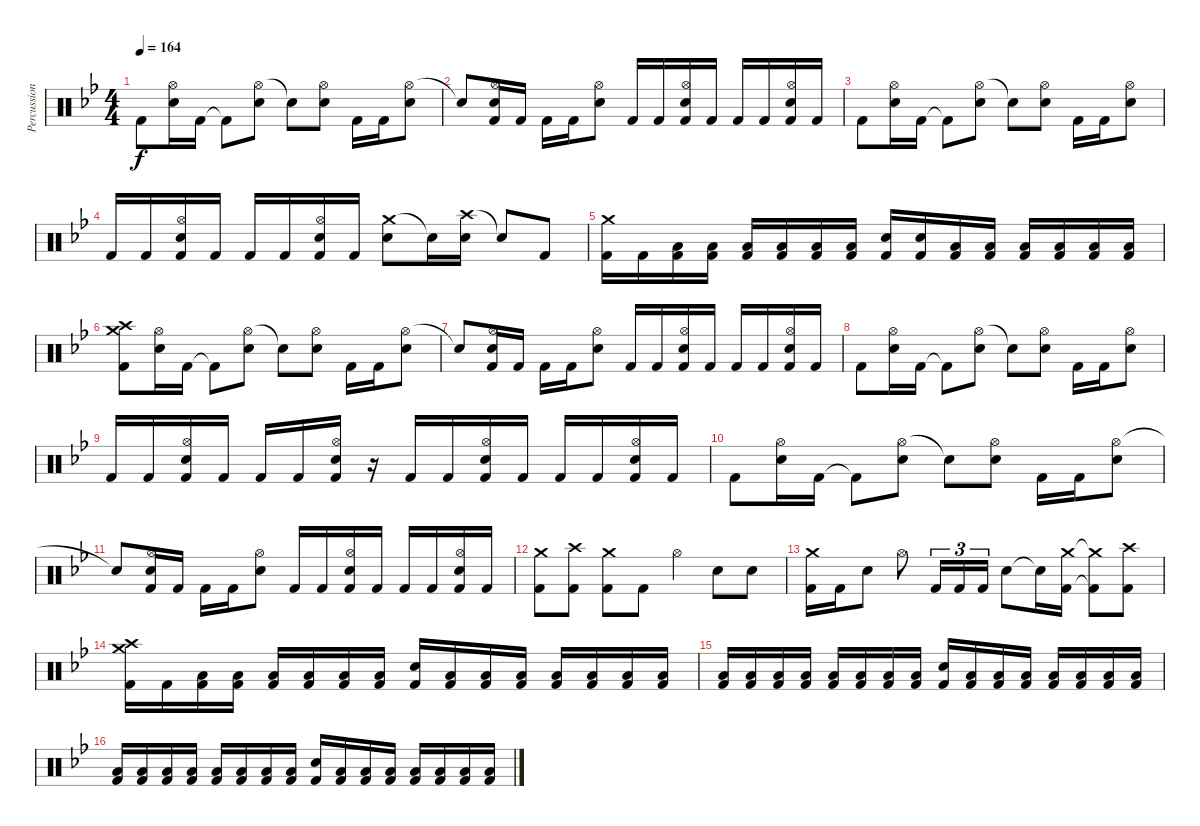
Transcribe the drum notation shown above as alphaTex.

\track ("Percussion" "Percussion") {instrument percussion}
\staff {score}
\articulation defaults
\ts (4 4)
\tempo 164
\clef neutral
\ks bb "Kick (hit) 2".8{dy f}
("Hi-Hat (open)" "Electric Snare (hit)").16 "Kick (hit) 2".16 "Kick (hit) 2"{t}.8 ("Hi-Hat (open)" "Electric Snare (hit)").8 "Electric Snare (hit)"{t}.8 ("Hi-Hat (open)" "Electric Snare (hit)").8 "Kick (hit) 2".16 "Kick (hit) 2".16 ("Hi-Hat (open)" "Electric Snare (hit)").8 |
"Electric Snare (hit)"{t}.8 ("Hi-Hat (open)" "Electric Snare (hit)" "Kick (hit) 2").16 "Kick (hit) 2".16 "Kick (hit) 2".16 "Kick (hit) 2".16 ("Hi-Hat (open)" "Electric Snare (hit)").8 "Kick (hit) 2".16 "Kick (hit) 2".16 ("Hi-Hat (open)" "Electric Snare (hit)" "Kick (hit) 2").16 "Kick (hit) 2".16 "Kick (hit) 2".16 "Kick (hit) 2".16 ("Hi-Hat (open)" "Electric Snare (hit)" "Kick (hit) 2").16 "Kick (hit) 2".16 |
"Kick (hit) 2".8 ("Hi-Hat (open)" "Electric Snare (hit)").16 "Kick (hit) 2".16 "Kick (hit) 2"{t}.8 ("Hi-Hat (open)" "Electric Snare (hit)").8 "Electric Snare (hit)"{t}.8 ("Hi-Hat (open)" "Electric Snare (hit)").8 "Kick (hit) 2".16 "Kick (hit) 2".16 ("Hi-Hat (open)" "Electric Snare (hit)").8 |
"Kick (hit) 2".16 "Kick (hit) 2".16 ("Hi-Hat (open)" "Electric Snare (hit)" "Kick (hit) 2").16 "Kick (hit) 2".16 "Kick (hit) 2".16 "Kick (hit) 2".16 ("Hi-Hat (open)" "Electric Snare (hit)" "Kick (hit) 2").16 "Kick (hit) 2".16 ("Crash medium (hit)" "Electric Snare (hit)").8 "Electric Snare (hit)"{t}.16 ("Crash high (hit)" "Electric Snare (hit)").16 "Electric Snare (hit)"{t}.8 "Kick (hit) 2".8 |
("Crash medium (hit)" "Kick (hit) 2").16 "Kick (hit) 2".16 ("Low Floor Tom (hit)" "Kick (hit) 2").16 ("Low Floor Tom (hit)" "Kick (hit) 2").16 ("Low Floor Tom (hit)" "Kick (hit) 2").16 ("Low Floor Tom (hit)" "Kick (hit) 2").16 ("Low Floor Tom (hit)" "Kick (hit) 2").16 ("Low Floor Tom (hit)" "Kick (hit) 2").16 ("Electric Snare (hit)" "Kick (hit) 2").16 ("Electric Snare (hit)" "Kick (hit) 2").16 ("Low Floor Tom (hit)" "Kick (hit) 2").16 ("Low Floor Tom (hit)" "Kick (hit) 2").16 ("Low Floor Tom (hit)" "Kick (hit) 2").16 ("Low Floor Tom (hit)" "Kick (hit) 2").16 ("Low Floor Tom (hit)" "Kick (hit) 2").16 ("Low Floor Tom (hit)" "Kick (hit) 2").16 |
("Crash medium (hit)" "Crash high (hit)" "Kick (hit) 2").8 ("Hi-Hat (open)" "Electric Snare (hit)").16 "Kick (hit) 2".16 "Kick (hit) 2"{t}.8 ("Hi-Hat (open)" "Electric Snare (hit)").8 "Electric Snare (hit)"{t}.8 ("Hi-Hat (open)" "Electric Snare (hit)").8 "Kick (hit) 2".16 "Kick (hit) 2".16 ("Hi-Hat (open)" "Electric Snare (hit)").8 |
"Electric Snare (hit)"{t}.8 ("Hi-Hat (open)" "Electric Snare (hit)" "Kick (hit) 2").16 "Kick (hit) 2".16 "Kick (hit) 2".16 "Kick (hit) 2".16 ("Hi-Hat (open)" "Electric Snare (hit)").8 "Kick (hit) 2".16 "Kick (hit) 2".16 ("Hi-Hat (open)" "Electric Snare (hit)" "Kick (hit) 2").16 "Kick (hit) 2".16 "Kick (hit) 2".16 "Kick (hit) 2".16 ("Hi-Hat (open)" "Electric Snare (hit)" "Kick (hit) 2").16 "Kick (hit) 2".16 |
"Kick (hit) 2".8 ("Hi-Hat (open)" "Electric Snare (hit)").16 "Kick (hit) 2".16 "Kick (hit) 2"{t}.8 ("Hi-Hat (open)" "Electric Snare (hit)").8 "Electric Snare (hit)"{t}.8 ("Hi-Hat (open)" "Electric Snare (hit)").8 "Kick (hit) 2".16 "Kick (hit) 2".16 ("Hi-Hat (open)" "Electric Snare (hit)").8 |
"Kick (hit) 2".16 "Kick (hit) 2".16 ("Hi-Hat (open)" "Electric Snare (hit)" "Kick (hit) 2").16 "Kick (hit) 2".16 "Kick (hit) 2".16 "Kick (hit) 2".16 ("Hi-Hat (open)" "Electric Snare (hit)" "Kick (hit) 2").16 r.16 "Kick (hit) 2".16 "Kick (hit) 2".16 ("Hi-Hat (open)" "Electric Snare (hit)" "Kick (hit) 2").16 "Kick (hit) 2".16 "Kick (hit) 2".16 "Kick (hit) 2".16 ("Hi-Hat (open)" "Electric Snare (hit)" "Kick (hit) 2").16 "Kick (hit) 2".16 |
"Kick (hit) 2".8 ("Hi-Hat (open)" "Electric Snare (hit)").16 "Kick (hit) 2".16 "Kick (hit) 2"{t}.8 ("Hi-Hat (open)" "Electric Snare (hit)").8 "Electric Snare (hit)"{t}.8 ("Hi-Hat (open)" "Electric Snare (hit)").8 "Kick (hit) 2".16 "Kick (hit) 2".16 ("Hi-Hat (open)" "Electric Snare (hit)").8 |
"Electric Snare (hit)"{t}.8 ("Hi-Hat (open)" "Electric Snare (hit)" "Kick (hit) 2").16 "Kick (hit) 2".16 "Kick (hit) 2".16 "Kick (hit) 2".16 ("Hi-Hat (open)" "Electric Snare (hit)").8 "Kick (hit) 2".16 "Kick (hit) 2".16 ("Hi-Hat (open)" "Electric Snare (hit)" "Kick (hit) 2").16 "Kick (hit) 2".16 "Kick (hit) 2".16 "Kick (hit) 2".16 ("Hi-Hat (open)" "Electric Snare (hit)" "Kick (hit) 2").16 "Kick (hit) 2".16 |
("Crash medium (hit)" "Kick (hit) 2").8 ("Crash high (hit)" "Kick (hit) 2").8 ("Crash medium (hit)" "Kick (hit) 2").8 "Kick (hit) 2".8 "Hi-Hat (open)".4 "Electric Snare (hit)".8 "Electric Snare (hit)".8 |
("Crash medium (hit)" "Kick (hit) 2").16 "Kick (hit) 2".16 "Electric Snare (hit)".8 "Hi-Hat (open)".8 "Kick (hit) 2".16{tu (3 2)} "Kick (hit) 2".16{tu (3 2)} "Kick (hit) 2".16{tu (3 2)} "Electric Snare (hit)".8 "Electric Snare (hit)"{t}.16 ("Crash medium (hit)" "Kick (hit) 2").16 ("Crash medium (hit)"{t} "Kick (hit) 2"{t}).8 ("Crash high (hit)" "Kick (hit) 2").8 |
("Crash medium (hit)" "Crash high (hit)" "Kick (hit) 2").16 "Kick (hit) 2".16 ("Low Floor Tom (hit)" "Kick (hit) 2").16 ("Low Floor Tom (hit)" "Kick (hit) 2").16 ("Low Floor Tom (hit)" "Kick (hit) 2").16 ("Low Floor Tom (hit)" "Kick (hit) 2").16 ("Low Floor Tom (hit)" "Kick (hit) 2").16 ("Low Floor Tom (hit)" "Kick (hit) 2").16 ("Electric Snare (hit)" "Kick (hit) 2").16 ("Low Floor Tom (hit)" "Kick (hit) 2").16 ("Low Floor Tom (hit)" "Kick (hit) 2").16 ("Low Floor Tom (hit)" "Kick (hit) 2").16 ("Low Floor Tom (hit)" "Kick (hit) 2").16 ("Low Floor Tom (hit)" "Kick (hit) 2").16 ("Low Floor Tom (hit)" "Kick (hit) 2").16 ("Low Floor Tom (hit)" "Kick (hit) 2").16 |
("Low Floor Tom (hit)" "Kick (hit) 2").16 ("Low Floor Tom (hit)" "Kick (hit) 2").16 ("Low Floor Tom (hit)" "Kick (hit) 2").16 ("Low Floor Tom (hit)" "Kick (hit) 2").16 ("Low Floor Tom (hit)" "Kick (hit) 2").16 ("Low Floor Tom (hit)" "Kick (hit) 2").16 ("Low Floor Tom (hit)" "Kick (hit) 2").16 ("Low Floor Tom (hit)" "Kick (hit) 2").16 ("Electric Snare (hit)" "Kick (hit) 2").16 ("Low Floor Tom (hit)" "Kick (hit) 2").16 ("Low Floor Tom (hit)" "Kick (hit) 2").16 ("Low Floor Tom (hit)" "Kick (hit) 2").16 ("Low Floor Tom (hit)" "Kick (hit) 2").16 ("Low Floor Tom (hit)" "Kick (hit) 2").16 ("Low Floor Tom (hit)" "Kick (hit) 2").16 ("Low Floor Tom (hit)" "Kick (hit) 2").16 |
("Low Floor Tom (hit)" "Kick (hit) 2").16 ("Low Floor Tom (hit)" "Kick (hit) 2").16 ("Low Floor Tom (hit)" "Kick (hit) 2").16 ("Low Floor Tom (hit)" "Kick (hit) 2").16 ("Low Floor Tom (hit)" "Kick (hit) 2").16 ("Low Floor Tom (hit)" "Kick (hit) 2").16 ("Low Floor Tom (hit)" "Kick (hit) 2").16 ("Low Floor Tom (hit)" "Kick (hit) 2").16 ("Electric Snare (hit)" "Kick (hit) 2").16 ("Low Floor Tom (hit)" "Kick (hit) 2").16 ("Low Floor Tom (hit)" "Kick (hit) 2").16 ("Low Floor Tom (hit)" "Kick (hit) 2").16 ("Low Floor Tom (hit)" "Kick (hit) 2").16 ("Low Floor Tom (hit)" "Kick (hit) 2").16 ("Low Floor Tom (hit)" "Kick (hit) 2").16 ("Low Floor Tom (hit)" "Kick (hit) 2").16
